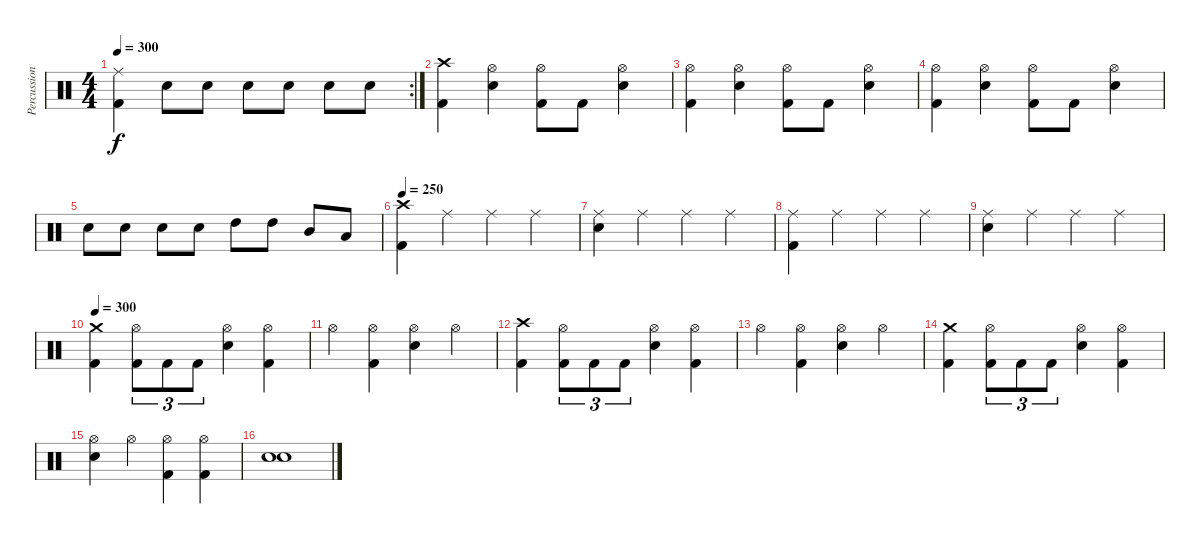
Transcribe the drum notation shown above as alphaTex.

\track ("Percussion" "Percussion") {instrument percussion}
\staff {score}
\articulation defaults
\rc 2
\ts (4 4)
\tempo 300
\clef neutral
\ks c
("Ride (middle)" "Kick (hit) 2").4{dy f} "Snare (hit) 2".8 "Snare (hit) 2".8 "Snare (hit) 2".8 "Snare (hit) 2".8 "Snare (hit) 2".8 "Snare (hit) 2".8 |
("Crash high (hit)" "Kick (hit) 2").4 ("Hi-Hat (open)" "Snare (hit) 2").4 ("Hi-Hat (open)" "Kick (hit) 2").8 "Kick (hit) 2".8 ("Hi-Hat (open)" "Snare (hit) 2").4 |
("Hi-Hat (open)" "Kick (hit) 2").4 ("Hi-Hat (open)" "Snare (hit) 2").4 ("Hi-Hat (open)" "Kick (hit) 2").8 "Kick (hit) 2".8 ("Hi-Hat (open)" "Snare (hit) 2").4 |
("Hi-Hat (open)" "Kick (hit) 2").4 ("Hi-Hat (open)" "Snare (hit) 2").4 ("Hi-Hat (open)" "Kick (hit) 2").8 "Kick (hit) 2".8 ("Hi-Hat (open)" "Snare (hit) 2").4 |
"Snare (hit) 2".8 "Snare (hit) 2".8 "Snare (hit) 2".8 "Snare (hit) 2".8 "High Tom (hit)".8 "High Tom (hit)".8 "Mid Tom (hit)".8 "Low Tom (hit)".8 |
\tempo 250
("Crash high (hit)" "Kick (hit) 2").4 "Ride (middle)".4 "Ride (middle)".4 "Ride (middle)".4 |
("Ride (middle)" "Snare (hit) 2").4 "Ride (middle)".4 "Ride (middle)".4 "Ride (middle)".4 |
("Ride (middle)" "Kick (hit) 2").4 "Ride (middle)".4 "Ride (middle)".4 "Ride (middle)".4 |
("Ride (middle)" "Snare (hit) 2").4 "Ride (middle)".4 "Ride (middle)".4 "Ride (middle)".4 |
\tempo 300
("Crash medium (hit)" "Kick (hit) 2").4 ("Hi-Hat (open)" "Kick (hit) 2").8{tu (3 2)} "Kick (hit) 2".8{tu (3 2)} "Kick (hit) 2".8{tu (3 2)} ("Hi-Hat (open)" "Snare (hit) 2").4 ("Hi-Hat (open)" "Kick (hit) 2").4 |
"Hi-Hat (open)".4 ("Hi-Hat (open)" "Kick (hit) 2").4 ("Hi-Hat (open)" "Snare (hit) 2").4 "Hi-Hat (open)".4 |
("Crash high (hit)" "Kick (hit) 2").4 ("Hi-Hat (open)" "Kick (hit) 2").8{tu (3 2)} "Kick (hit) 2".8{tu (3 2)} "Kick (hit) 2".8{tu (3 2)} ("Hi-Hat (open)" "Snare (hit) 2").4 ("Hi-Hat (open)" "Kick (hit) 2").4 |
"Hi-Hat (open)".4 ("Hi-Hat (open)" "Kick (hit) 2").4 ("Hi-Hat (open)" "Snare (hit) 2").4 "Hi-Hat (open)".4 |
("Crash medium (hit)" "Kick (hit) 2").4 ("Hi-Hat (open)" "Kick (hit) 2").8{tu (3 2)} "Kick (hit) 2".8{tu (3 2)} "Kick (hit) 2".8{tu (3 2)} ("Hi-Hat (open)" "Snare (hit) 2").4 ("Hi-Hat (open)" "Kick (hit) 2").4 |
("Hi-Hat (open)" "Snare (hit) 2").4 "Hi-Hat (open)".4 ("Hi-Hat (open)" "Kick (hit) 2").4 ("Hi-Hat (open)" "Kick (hit) 2").4 |
("Snare (hit) 2" "Snare (hit) 2").1
